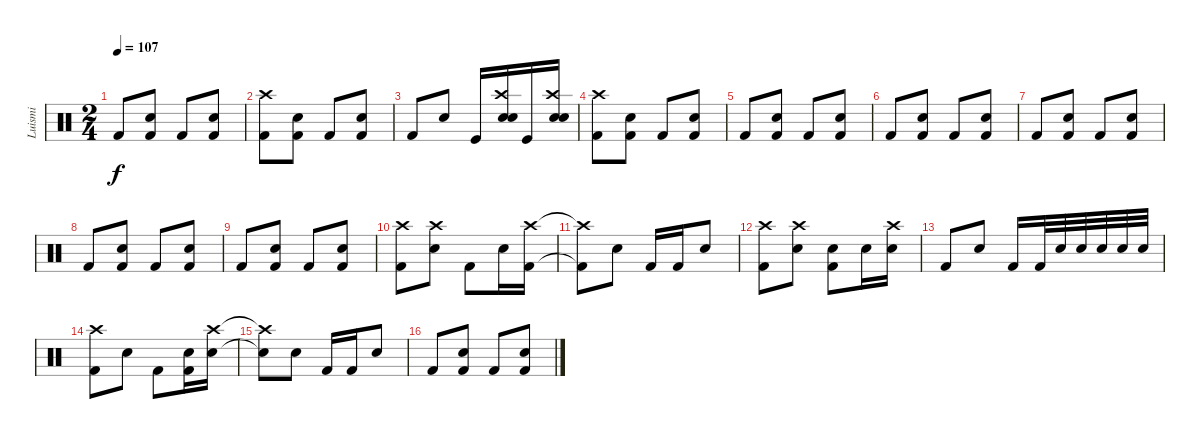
\track ("Luismi" "Luismi") {instrument percussion}
\staff {score}
\articulation defaults
\ts (2 4)
\tempo 107
\clef neutral
\ks c "Kick (hit) 2".8{dy f}
("Snare (hit) 2" "Kick (hit) 2").8 "Kick (hit) 2".8 ("Snare (hit) 2" "Kick (hit) 2").8 |
("Crash high (hit)" "Kick (hit) 2").8 ("Snare (hit) 2" "Kick (hit) 2").8 "Kick (hit) 2".8 ("Snare (hit) 2" "Kick (hit) 2").8 |
"Kick (hit) 2".8 "Snare (hit) 2".8 "Kick (hit)".16 ("Crash high (hit)" "Snare (hit) 2" "Electric Snare (hit)").16 "Kick (hit)".16 ("Crash high (hit)" "Snare (hit) 2" "Electric Snare (hit)").16 |
("Crash high (hit)" "Kick (hit) 2").8 ("Snare (hit) 2" "Kick (hit) 2").8 "Kick (hit) 2".8 ("Snare (hit) 2" "Kick (hit) 2").8 |
"Kick (hit) 2".8 ("Snare (hit) 2" "Kick (hit) 2").8 "Kick (hit) 2".8 ("Snare (hit) 2" "Kick (hit) 2").8 |
"Kick (hit) 2".8 ("Snare (hit) 2" "Kick (hit) 2").8 "Kick (hit) 2".8 ("Snare (hit) 2" "Kick (hit) 2").8 |
"Kick (hit) 2".8 ("Snare (hit) 2" "Kick (hit) 2").8 "Kick (hit) 2".8 ("Snare (hit) 2" "Kick (hit) 2").8 |
"Kick (hit) 2".8 ("Snare (hit) 2" "Kick (hit) 2").8 "Kick (hit) 2".8 ("Snare (hit) 2" "Kick (hit) 2").8 |
"Kick (hit) 2".8 ("Snare (hit) 2" "Kick (hit) 2").8 "Kick (hit) 2".8 ("Snare (hit) 2" "Kick (hit) 2").8 |
("Crash high (hit)" "Kick (hit) 2").8 ("Crash high (hit)" "Snare (hit) 2").8 "Kick (hit) 2".8 "Snare (hit) 2".16 ("Crash high (hit)" "Kick (hit) 2").16 |
("Crash high (hit)"{t} "Kick (hit) 2"{t}).8 "Snare (hit) 2".8 "Kick (hit) 2".16 "Kick (hit) 2".16 "Snare (hit) 2".8 |
("Crash high (hit)" "Kick (hit) 2").8 ("Crash high (hit)" "Snare (hit) 2").8 ("Snare (hit) 2" "Kick (hit) 2").8 "Snare (hit) 2".16 ("Crash high (hit)" "Snare (hit) 2").16 |
"Kick (hit) 2".8 "Snare (hit) 2".8 "Kick (hit) 2".16 "Kick (hit) 2".32 "Snare (hit) 2".32 "Electric Snare (hit)".32 "Electric Snare (hit)".32 "Snare (hit) 2".32 "Snare (hit) 2".32 |
("Crash high (hit)" "Kick (hit) 2").8 "Snare (hit) 2".8 "Kick (hit) 2".8 ("Snare (hit) 2" "Kick (hit) 2").16 ("Crash high (hit)" "Snare (hit) 2").16 |
("Crash high (hit)"{t} "Snare (hit)"{t}).8 "Snare (hit) 2".8 "Kick (hit) 2".16 "Kick (hit) 2".16 "Snare (hit) 2".8 |
"Kick (hit) 2".8 ("Snare (hit) 2" "Kick (hit) 2").8 "Kick (hit) 2".8 ("Snare (hit) 2" "Kick (hit) 2").8
